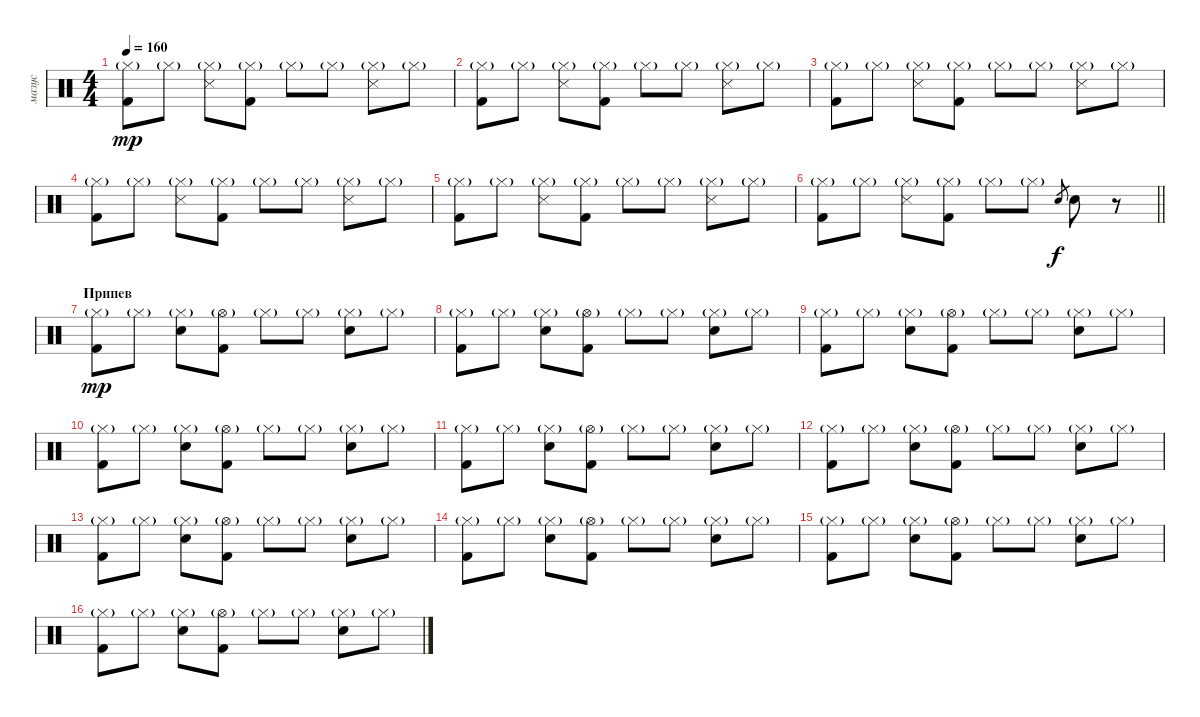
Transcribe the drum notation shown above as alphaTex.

\track ("мазус" "мазус") {instrument percussion}
\staff {score}
\articulation defaults
\ts (4 4)
\tempo 160
\clef neutral
\ks c
("Kick (hit) 2" "Hi-Hat (closed)"{g}).8{dy mp} "Hi-Hat (closed)"{g}.8 ("Snare (side stick) 3" "Hi-Hat (closed)"{g}).8 ("Kick (hit) 2" "Hi-Hat (closed)"{g}).8 "Hi-Hat (closed)"{g}.8 "Hi-Hat (closed)"{g}.8 ("Snare (side stick) 3" "Hi-Hat (closed)"{g}).8 "Hi-Hat (closed)"{g}.8 |
("Kick (hit) 2" "Hi-Hat (closed)"{g}).8 "Hi-Hat (closed)"{g}.8 ("Snare (side stick) 3" "Hi-Hat (closed)"{g}).8 ("Kick (hit) 2" "Hi-Hat (closed)"{g}).8 "Hi-Hat (closed)"{g}.8 "Hi-Hat (closed)"{g}.8 ("Snare (side stick) 3" "Hi-Hat (closed)"{g}).8 "Hi-Hat (closed)"{g}.8 |
("Kick (hit) 2" "Hi-Hat (closed)"{g}).8 "Hi-Hat (closed)"{g}.8 ("Snare (side stick) 3" "Hi-Hat (closed)"{g}).8 ("Kick (hit) 2" "Hi-Hat (closed)"{g}).8 "Hi-Hat (closed)"{g}.8 "Hi-Hat (closed)"{g}.8 ("Snare (side stick) 3" "Hi-Hat (closed)"{g}).8 "Hi-Hat (closed)"{g}.8 |
("Kick (hit) 2" "Hi-Hat (closed)"{g}).8 "Hi-Hat (closed)"{g}.8 ("Snare (side stick) 3" "Hi-Hat (closed)"{g}).8 ("Kick (hit) 2" "Hi-Hat (closed)"{g}).8 "Hi-Hat (closed)"{g}.8 "Hi-Hat (closed)"{g}.8 ("Snare (side stick) 3" "Hi-Hat (closed)"{g}).8 "Hi-Hat (closed)"{g}.8 |
("Kick (hit) 2" "Hi-Hat (closed)"{g}).8 "Hi-Hat (closed)"{g}.8 ("Snare (side stick) 3" "Hi-Hat (closed)"{g}).8 ("Kick (hit) 2" "Hi-Hat (closed)"{g}).8 "Hi-Hat (closed)"{g}.8 "Hi-Hat (closed)"{g}.8 ("Snare (side stick) 3" "Hi-Hat (closed)"{g}).8 "Hi-Hat (closed)"{g}.8 |
\barLineRight lightlight
("Kick (hit) 2" "Hi-Hat (closed)"{g}).8 "Hi-Hat (closed)"{g}.8 ("Snare (side stick) 3" "Hi-Hat (closed)"{g}).8 ("Kick (hit) 2" "Hi-Hat (closed)"{g}).8 "Hi-Hat (closed)"{g}.8 "Hi-Hat (closed)"{g}.8 "Electric Snare (hit)".8{gr dy f} "Electric Snare (hit)".8 r.8 |
\section ("" "Припев ")
("Kick (hit) 2" "Hi-Hat (closed)"{g}).8{dy mp} "Hi-Hat (closed)"{g}.8 ("Electric Snare (hit)" "Hi-Hat (closed)"{g}).8 ("Kick (hit) 2" "Hi-Hat (open)"{g}).8 "Hi-Hat (closed)"{g}.8 "Hi-Hat (closed)"{g}.8 ("Electric Snare (hit)" "Hi-Hat (closed)"{g}).8 "Hi-Hat (closed)"{g}.8 |
("Kick (hit) 2" "Hi-Hat (closed)"{g}).8 "Hi-Hat (closed)"{g}.8 ("Electric Snare (hit)" "Hi-Hat (closed)"{g}).8 ("Kick (hit) 2" "Hi-Hat (open)"{g}).8 "Hi-Hat (closed)"{g}.8 "Hi-Hat (closed)"{g}.8 ("Electric Snare (hit)" "Hi-Hat (closed)"{g}).8 "Hi-Hat (closed)"{g}.8 |
("Kick (hit) 2" "Hi-Hat (closed)"{g}).8 "Hi-Hat (closed)"{g}.8 ("Electric Snare (hit)" "Hi-Hat (closed)"{g}).8 ("Kick (hit) 2" "Hi-Hat (open)"{g}).8 "Hi-Hat (closed)"{g}.8 "Hi-Hat (closed)"{g}.8 ("Electric Snare (hit)" "Hi-Hat (closed)"{g}).8 "Hi-Hat (closed)"{g}.8 |
("Kick (hit) 2" "Hi-Hat (closed)"{g}).8 "Hi-Hat (closed)"{g}.8 ("Electric Snare (hit)" "Hi-Hat (closed)"{g}).8 ("Kick (hit) 2" "Hi-Hat (open)"{g}).8 "Hi-Hat (closed)"{g}.8 "Hi-Hat (closed)"{g}.8 ("Electric Snare (hit)" "Hi-Hat (closed)"{g}).8 "Hi-Hat (closed)"{g}.8 |
("Kick (hit) 2" "Hi-Hat (closed)"{g}).8 "Hi-Hat (closed)"{g}.8 ("Electric Snare (hit)" "Hi-Hat (closed)"{g}).8 ("Kick (hit) 2" "Hi-Hat (open)"{g}).8 "Hi-Hat (closed)"{g}.8 "Hi-Hat (closed)"{g}.8 ("Electric Snare (hit)" "Hi-Hat (closed)"{g}).8 "Hi-Hat (closed)"{g}.8 |
("Kick (hit) 2" "Hi-Hat (closed)"{g}).8 "Hi-Hat (closed)"{g}.8 ("Electric Snare (hit)" "Hi-Hat (closed)"{g}).8 ("Kick (hit) 2" "Hi-Hat (open)"{g}).8 "Hi-Hat (closed)"{g}.8 "Hi-Hat (closed)"{g}.8 ("Electric Snare (hit)" "Hi-Hat (closed)"{g}).8 "Hi-Hat (closed)"{g}.8 |
("Kick (hit) 2" "Hi-Hat (closed)"{g}).8 "Hi-Hat (closed)"{g}.8 ("Electric Snare (hit)" "Hi-Hat (closed)"{g}).8 ("Kick (hit) 2" "Hi-Hat (open)"{g}).8 "Hi-Hat (closed)"{g}.8 "Hi-Hat (closed)"{g}.8 ("Electric Snare (hit)" "Hi-Hat (closed)"{g}).8 "Hi-Hat (closed)"{g}.8 |
("Kick (hit) 2" "Hi-Hat (closed)"{g}).8 "Hi-Hat (closed)"{g}.8 ("Electric Snare (hit)" "Hi-Hat (closed)"{g}).8 ("Kick (hit) 2" "Hi-Hat (open)"{g}).8 "Hi-Hat (closed)"{g}.8 "Hi-Hat (closed)"{g}.8 ("Electric Snare (hit)" "Hi-Hat (closed)"{g}).8 "Hi-Hat (closed)"{g}.8 |
("Kick (hit) 2" "Hi-Hat (closed)"{g}).8 "Hi-Hat (closed)"{g}.8 ("Electric Snare (hit)" "Hi-Hat (closed)"{g}).8 ("Kick (hit) 2" "Hi-Hat (open)"{g}).8 "Hi-Hat (closed)"{g}.8 "Hi-Hat (closed)"{g}.8 ("Electric Snare (hit)" "Hi-Hat (closed)"{g}).8 "Hi-Hat (closed)"{g}.8 |
("Kick (hit) 2" "Hi-Hat (closed)"{g}).8 "Hi-Hat (closed)"{g}.8 ("Electric Snare (hit)" "Hi-Hat (closed)"{g}).8 ("Kick (hit) 2" "Hi-Hat (open)"{g}).8 "Hi-Hat (closed)"{g}.8 "Hi-Hat (closed)"{g}.8 ("Electric Snare (hit)" "Hi-Hat (closed)"{g}).8 "Hi-Hat (closed)"{g}.8
